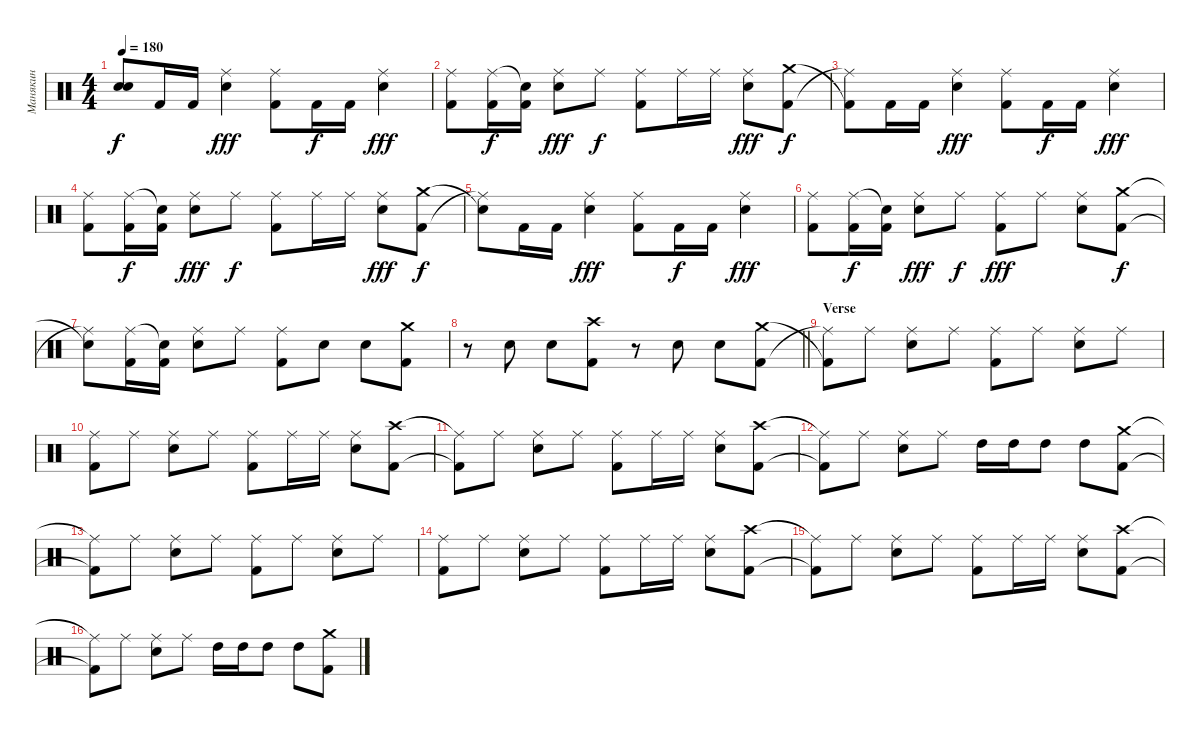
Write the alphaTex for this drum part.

\track ("Манякин" "Манякин") {instrument percussion}
\staff {score}
\articulation defaults
\ts (4 4)
\tempo 180
\clef neutral
\ks c
("Snare (hit)"{t} "Snare (hit)"{t}).8{dy f} "Kick (hit) 2".16 "Kick (hit) 2".16 ("Snare (hit) 2" "Ride (middle)").4{dy fff} ("Kick (hit) 2" "Ride (middle)").8 "Kick (hit) 2".16{dy f} "Kick (hit) 2".16 ("Snare (hit) 2" "Ride (middle)").4{dy fff} |
("Kick (hit) 2" "Ride (middle)").8 ("Kick (hit) 2" "Ride (middle)").16{dy f} ("Kick (hit) 2" "Snare (hit)"{t}).16 ("Snare (hit) 2" "Ride (middle)").8{dy fff} "Ride (middle)".8{dy f} ("Kick (hit) 2" "Ride (middle)").8 "Ride (middle)".16 "Ride (middle)".16 ("Snare (hit) 2" "Ride (middle)").8{dy fff} ("Kick (hit) 2" "Crash medium (hit)").8{dy f} |
("Ride (middle)"{t} "Kick (hit) 2"{t}).8 "Kick (hit) 2".16 "Kick (hit) 2".16 ("Snare (hit) 2" "Ride (middle)").4{dy fff} ("Kick (hit) 2" "Ride (middle)").8 "Kick (hit) 2".16{dy f} "Kick (hit) 2".16 ("Snare (hit) 2" "Ride (middle)").4{dy fff} |
("Kick (hit) 2" "Ride (middle)").8 ("Kick (hit) 2" "Ride (middle)").16{dy f} ("Kick (hit) 2" "Snare (hit)"{t}).16 ("Snare (hit) 2" "Ride (middle)").8{dy fff} "Ride (middle)".8{dy f} ("Kick (hit) 2" "Ride (middle)").8 "Ride (middle)".16 "Ride (middle)".16 ("Snare (hit) 2" "Ride (middle)").8{dy fff} ("Kick (hit) 2" "Crash medium (hit)").8{dy f} |
("Ride (middle)"{t} "Snare (hit)"{t}).8 "Kick (hit) 2".16 "Kick (hit) 2".16 ("Snare (hit) 2" "Ride (middle)").4{dy fff} ("Kick (hit) 2" "Ride (middle)").8 "Kick (hit) 2".16{dy f} "Kick (hit) 2".16 ("Snare (hit) 2" "Ride (middle)").4{dy fff} |
("Kick (hit) 2" "Ride (middle)").8 ("Kick (hit) 2" "Ride (middle)").16{dy f} ("Kick (hit) 2" "Snare (hit)"{t}).16 ("Snare (hit) 2" "Ride (middle)").8{dy fff} "Ride (middle)".8{dy f} ("Kick (hit) 2" "Ride (middle)").8{dy fff} "Ride (middle)".8 ("Snare (hit) 2" "Ride (middle)").8 ("Kick (hit) 2" "Crash medium (hit)").8{dy f} |
("Ride (middle)"{t} "Snare (hit)"{t}).8 ("Kick (hit) 2" "Ride (middle)").16 ("Kick (hit) 2" "Snare (hit)"{t}).16 ("Snare (hit) 2" "Ride (middle)").8 "Ride (middle)".8 ("Kick (hit) 2" "Ride (middle)").8 "Snare (hit) 2".8 "Snare (hit) 2".8 ("Kick (hit) 2" "Crash medium (hit)").8 |
\barLineRight lightlight
r.8 "Snare (hit) 2".8 "Snare (hit) 2".8 ("Kick (hit) 2" "Crash high (hit)").8 r.8 "Snare (hit) 2".8 "Snare (hit) 2".8 ("Kick (hit) 2" "Crash medium (hit)").8 |
\section ("" "Verse")
("Ride (middle)"{t} "Kick (hit) 2"{t}).8 "Ride (middle)".8 ("Ride (middle)" "Snare (hit) 2").8 "Ride (middle)".8 ("Ride (middle)" "Kick (hit) 2").8 "Ride (middle)".8 ("Ride (middle)" "Snare (hit) 2").8 "Ride (middle)".8 |
("Kick (hit) 2" "Ride (middle)").8 "Ride (middle)".8 ("Snare (hit) 2" "Ride (middle)").8 "Ride (middle)".8 ("Kick (hit) 2" "Ride (middle)").8 "Ride (middle)".16 "Ride (middle)".16 ("Snare (hit) 2" "Ride (middle)").8 ("Kick (hit) 2" "Crash high (hit)").8 |
("Kick (hit) 2"{t} "Ride (middle)"{t}).8 "Ride (middle)".8 ("Snare (hit) 2" "Ride (middle)").8 "Ride (middle)".8 ("Kick (hit) 2" "Ride (middle)").8 "Ride (middle)".16 "Ride (middle)".16 ("Snare (hit) 2" "Ride (middle)").8 ("Kick (hit) 2" "Crash high (hit)").8 |
("Kick (hit) 2"{t} "Ride (middle)"{t}).8 "Ride (middle)".8 ("Snare (hit) 2" "Ride (middle)").8 "Ride (middle)".8 "High Tom (hit)".16 "High Tom (hit)".16 "High Tom (hit)".8 "High Tom (hit)".8 ("Crash medium (hit)" "Kick (hit) 2").8 |
("Ride (middle)"{t} "Kick (hit) 2"{t}).8 "Ride (middle)".8 ("Ride (middle)" "Snare (hit) 2").8 "Ride (middle)".8 ("Ride (middle)" "Kick (hit) 2").8 "Ride (middle)".8 ("Ride (middle)" "Snare (hit) 2").8 "Ride (middle)".8 |
("Kick (hit) 2" "Ride (middle)").8 "Ride (middle)".8 ("Snare (hit) 2" "Ride (middle)").8 "Ride (middle)".8 ("Kick (hit) 2" "Ride (middle)").8 "Ride (middle)".16 "Ride (middle)".16 ("Snare (hit) 2" "Ride (middle)").8 ("Kick (hit) 2" "Crash high (hit)").8 |
("Kick (hit) 2"{t} "Ride (middle)"{t}).8 "Ride (middle)".8 ("Snare (hit) 2" "Ride (middle)").8 "Ride (middle)".8 ("Kick (hit) 2" "Ride (middle)").8 "Ride (middle)".16 "Ride (middle)".16 ("Snare (hit) 2" "Ride (middle)").8 ("Kick (hit) 2" "Crash high (hit)").8 |
("Kick (hit) 2"{t} "Ride (middle)"{t}).8 "Ride (middle)".8 ("Snare (hit) 2" "Ride (middle)").8 "Ride (middle)".8 "High Tom (hit)".16 "High Tom (hit)".16 "High Tom (hit)".8 "High Tom (hit)".8 ("Crash medium (hit)" "Kick (hit) 2").8
